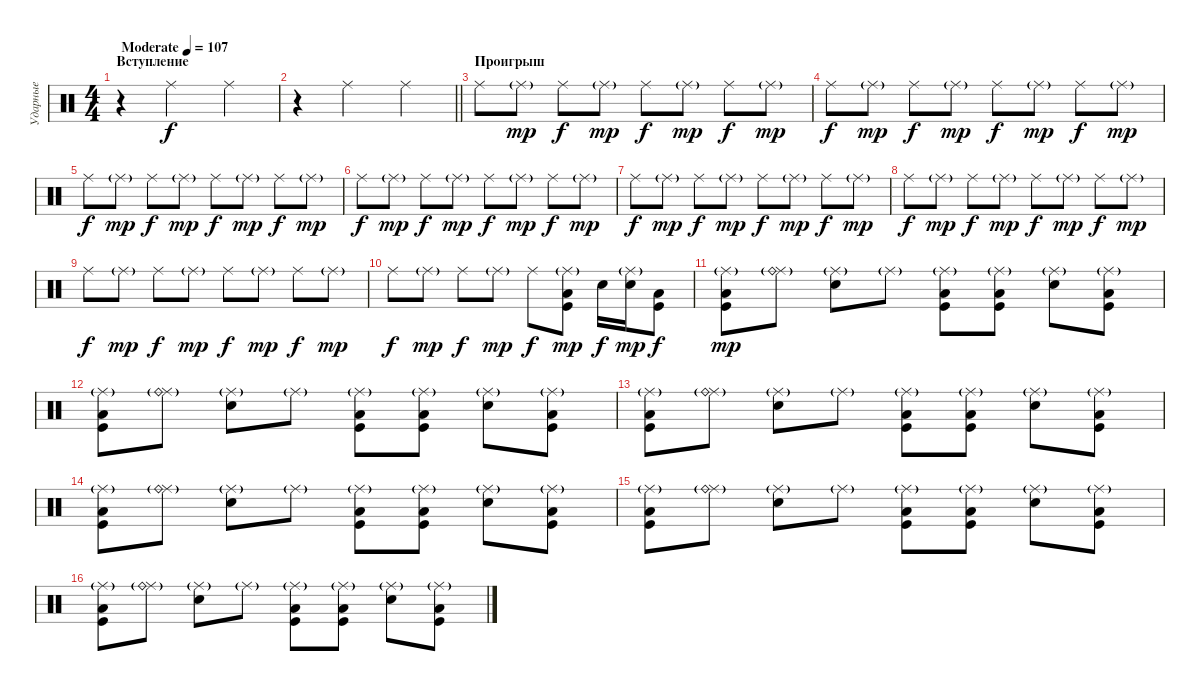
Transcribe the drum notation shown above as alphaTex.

\track ("Ударные" "Ударные") {instrument percussion}
\staff {score}
\articulation defaults
\ts (4 4)
\section ("" "Вступление")
\tempo (107 "Moderate")
\clef neutral
\ks c
r.4{dy f} "Ride (middle)".2 "Ride (middle)".4 |
\barLineRight lightlight
r.4 "Ride (middle)".2 "Ride (middle)".4 |
\section ("" "Проигрыш")
"Ride (middle)".8 "Ride (middle)"{g}.8{dy mp} "Ride (middle)".8{dy f} "Ride (middle)"{g}.8{dy mp} "Ride (middle)".8{dy f} "Ride (middle)"{g}.8{dy mp} "Ride (middle)".8{dy f} "Ride (middle)"{g}.8{dy mp} |
"Ride (middle)".8{dy f} "Ride (middle)"{g}.8{dy mp} "Ride (middle)".8{dy f} "Ride (middle)"{g}.8{dy mp} "Ride (middle)".8{dy f} "Ride (middle)"{g}.8{dy mp} "Ride (middle)".8{dy f} "Ride (middle)"{g}.8{dy mp} |
"Ride (middle)".8{dy f} "Ride (middle)"{g}.8{dy mp} "Ride (middle)".8{dy f} "Ride (middle)"{g}.8{dy mp} "Ride (middle)".8{dy f} "Ride (middle)"{g}.8{dy mp} "Ride (middle)".8{dy f} "Ride (middle)"{g}.8{dy mp} |
"Ride (middle)".8{dy f} "Ride (middle)"{g}.8{dy mp} "Ride (middle)".8{dy f} "Ride (middle)"{g}.8{dy mp} "Ride (middle)".8{dy f} "Ride (middle)"{g}.8{dy mp} "Ride (middle)".8{dy f} "Ride (middle)"{g}.8{dy mp} |
"Ride (middle)".8{dy f} "Ride (middle)"{g}.8{dy mp} "Ride (middle)".8{dy f} "Ride (middle)"{g}.8{dy mp} "Ride (middle)".8{dy f} "Ride (middle)"{g}.8{dy mp} "Ride (middle)".8{dy f} "Ride (middle)"{g}.8{dy mp} |
"Ride (middle)".8{dy f} "Ride (middle)"{g}.8{dy mp} "Ride (middle)".8{dy f} "Ride (middle)"{g}.8{dy mp} "Ride (middle)".8{dy f} "Ride (middle)"{g}.8{dy mp} "Ride (middle)".8{dy f} "Ride (middle)"{g}.8{dy mp} |
"Ride (middle)".8{dy f} "Ride (middle)"{g}.8{dy mp} "Ride (middle)".8{dy f} "Ride (middle)"{g}.8{dy mp} "Ride (middle)".8{dy f} "Ride (middle)"{g}.8{dy mp} "Ride (middle)".8{dy f} "Ride (middle)"{g}.8{dy mp} |
"Ride (middle)".8{dy f} "Ride (middle)"{g}.8{dy mp} "Ride (middle)".8{dy f} "Ride (middle)"{g}.8{dy mp} "Ride (middle)".8{dy f} ("Ride (middle)"{g} "Kick (hit)" "Low Tom (hit)").8{dy mp} "Snare (hit) 2".16{dy f} ("Ride (middle)"{g} "Snare (hit) 2").16{dy mp} ("Kick (hit)" "Low Tom (hit)").8{dy f} |
("Ride (middle)"{g} "Kick (hit)" "Low Tom (hit)").8{dy mp} ("Ride (middle)"{g} "Ride (bell)").8 ("Ride (middle)"{g} "Snare (hit) 2").8 "Ride (middle)"{g}.8 ("Ride (middle)"{g} "Kick (hit)" "Low Tom (hit)").8 ("Ride (middle)"{g} "Kick (hit)" "Low Tom (hit)").8 ("Ride (middle)"{g} "Snare (hit) 2").8 ("Ride (middle)"{g} "Kick (hit)" "Low Tom (hit)").8 |
("Ride (middle)"{g} "Kick (hit)" "Low Tom (hit)").8 ("Ride (middle)"{g} "Ride (bell)").8 ("Ride (middle)"{g} "Snare (hit) 2").8 "Ride (middle)"{g}.8 ("Ride (middle)"{g} "Kick (hit)" "Low Tom (hit)").8 ("Ride (middle)"{g} "Kick (hit)" "Low Tom (hit)").8 ("Ride (middle)"{g} "Snare (hit) 2").8 ("Ride (middle)"{g} "Kick (hit)" "Low Tom (hit)").8 |
("Ride (middle)"{g} "Kick (hit)" "Low Tom (hit)").8 ("Ride (middle)"{g} "Ride (bell)").8 ("Ride (middle)"{g} "Snare (hit) 2").8 "Ride (middle)"{g}.8 ("Ride (middle)"{g} "Kick (hit)" "Low Tom (hit)").8 ("Ride (middle)"{g} "Kick (hit)" "Low Tom (hit)").8 ("Ride (middle)"{g} "Snare (hit) 2").8 ("Ride (middle)"{g} "Kick (hit)" "Low Tom (hit)").8 |
("Ride (middle)"{g} "Kick (hit)" "Low Tom (hit)").8 ("Ride (middle)"{g} "Ride (bell)").8 ("Ride (middle)"{g} "Snare (hit) 2").8 "Ride (middle)"{g}.8 ("Ride (middle)"{g} "Kick (hit)" "Low Tom (hit)").8 ("Ride (middle)"{g} "Kick (hit)" "Low Tom (hit)").8 ("Ride (middle)"{g} "Snare (hit) 2").8 ("Ride (middle)"{g} "Kick (hit)" "Low Tom (hit)").8 |
("Ride (middle)"{g} "Kick (hit)" "Low Tom (hit)").8 ("Ride (middle)"{g} "Ride (bell)").8 ("Ride (middle)"{g} "Snare (hit) 2").8 "Ride (middle)"{g}.8 ("Ride (middle)"{g} "Kick (hit)" "Low Tom (hit)").8 ("Ride (middle)"{g} "Kick (hit)" "Low Tom (hit)").8 ("Ride (middle)"{g} "Snare (hit) 2").8 ("Ride (middle)"{g} "Kick (hit)" "Low Tom (hit)").8 |
("Ride (middle)"{g} "Kick (hit)" "Low Tom (hit)").8 ("Ride (middle)"{g} "Ride (bell)").8 ("Ride (middle)"{g} "Snare (hit) 2").8 "Ride (middle)"{g}.8 ("Ride (middle)"{g} "Kick (hit)" "Low Tom (hit)").8 ("Ride (middle)"{g} "Kick (hit)" "Low Tom (hit)").8 ("Ride (middle)"{g} "Snare (hit) 2").8 ("Ride (middle)"{g} "Kick (hit)" "Low Tom (hit)").8
